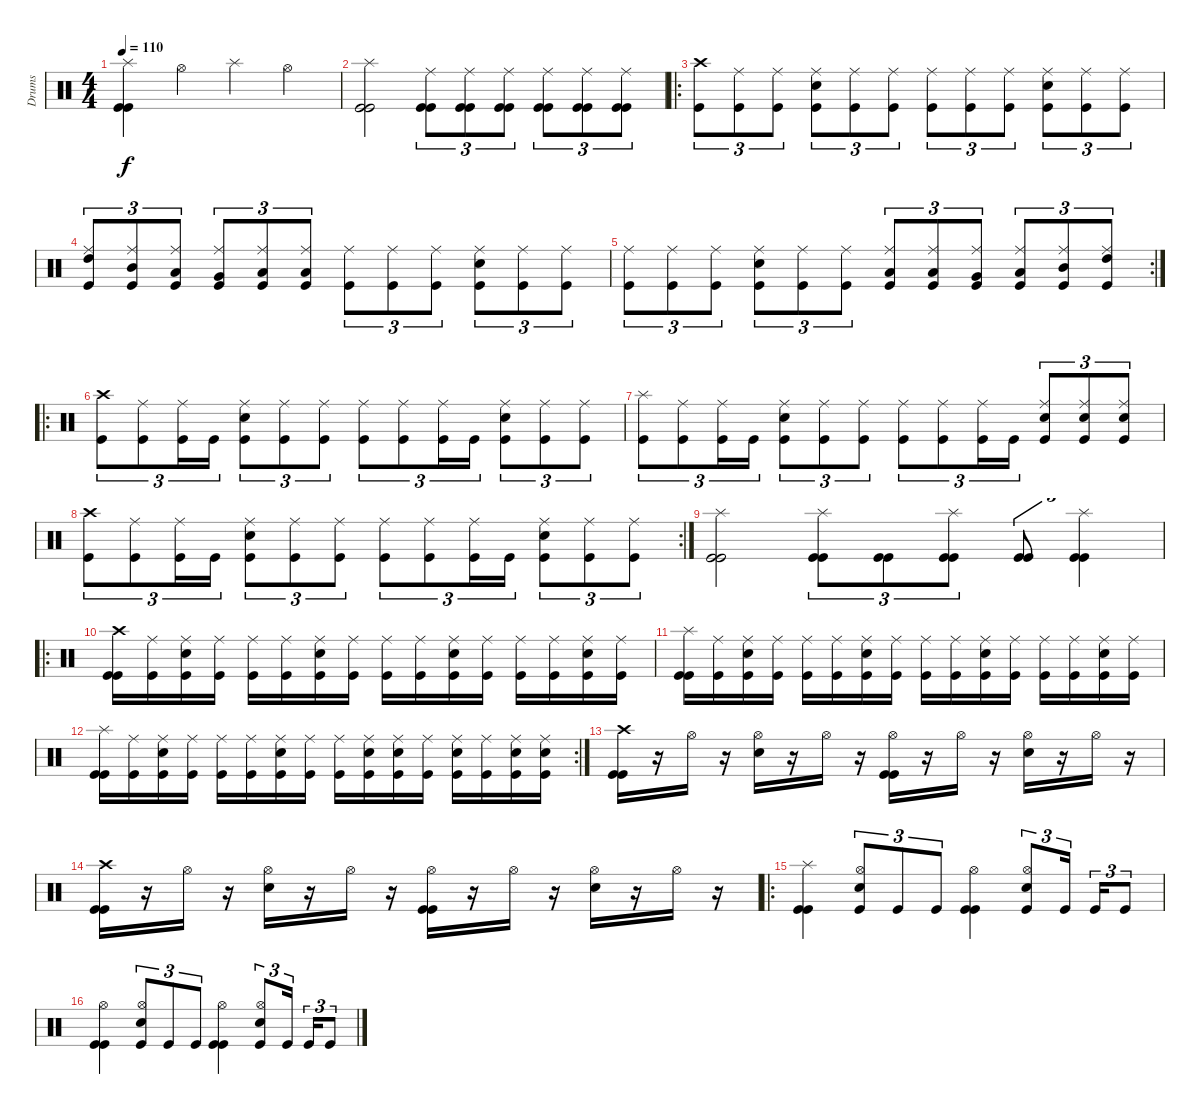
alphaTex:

\track ("Drums" "Drums") {instrument percussion}
\staff {score}
\articulation defaults
\ts (4 4)
\tempo 110
\clef neutral
\ks c
("Splash (hit)" "Kick (hit)" "Kick (hit)").4{dy f} "Hi-Hat (open)".4 "Splash (hit)".4 "Hi-Hat (open)".4 |
("Splash (hit)" "Kick (hit)" "Kick (hit)").2 ("Ride (middle)" "Kick (hit)" "Kick (hit)").8{tu (3 2)} ("Ride (middle)" "Kick (hit)" "Kick (hit)").8{tu (3 2)} ("Ride (middle)" "Kick (hit)" "Kick (hit)").8{tu (3 2)} ("Ride (middle)" "Kick (hit)" "Kick (hit)").8{tu (3 2)} ("Ride (middle)" "Kick (hit)" "Kick (hit)").8{tu (3 2)} ("Ride (middle)" "Kick (hit)" "Kick (hit)").8{tu (3 2)} |
\ro
("Crash high (hit)" "Kick (hit)").8{tu (3 2)} ("Ride (middle)" "Kick (hit)").8{tu (3 2)} ("Ride (middle)" "Kick (hit)").8{tu (3 2)} ("Ride (middle)" "Snare (hit) 2" "Kick (hit)").8{tu (3 2)} ("Ride (middle)" "Kick (hit)").8{tu (3 2)} ("Ride (middle)" "Kick (hit)").8{tu (3 2)} ("Ride (middle)" "Kick (hit)").8{tu (3 2)} ("Ride (middle)" "Kick (hit)").8{tu (3 2)} ("Ride (middle)" "Kick (hit)").8{tu (3 2)} ("Ride (middle)" "Snare (hit) 2" "Kick (hit)").8{tu (3 2)} ("Ride (middle)" "Kick (hit)").8{tu (3 2)} ("Ride (middle)" "Kick (hit)").8{tu (3 2)} |
("Ride (middle)" "High Tom (hit)" "Kick (hit)").8{tu (3 2)} ("Ride (middle)" "Mid Tom (hit)" "Kick (hit)").8{tu (3 2)} ("Ride (middle)" "Low Floor Tom (hit)" "Kick (hit)").8{tu (3 2)} ("Ride (middle)" "Very Low Tom (hit)" "Kick (hit)").8{tu (3 2)} ("Ride (middle)" "Low Tom (hit)" "Kick (hit)").8{tu (3 2)} ("Ride (middle)" "Low Tom (hit)" "Kick (hit)").8{tu (3 2)} ("Ride (middle)" "Kick (hit)").8{tu (3 2)} ("Ride (middle)" "Kick (hit)").8{tu (3 2)} ("Ride (middle)" "Kick (hit)").8{tu (3 2)} ("Ride (middle)" "Snare (hit) 2" "Kick (hit)").8{tu (3 2)} ("Ride (middle)" "Kick (hit)").8{tu (3 2)} ("Ride (middle)" "Kick (hit)").8{tu (3 2)} |
\rc 2
("Ride (middle)" "Kick (hit)").8{tu (3 2)} ("Ride (middle)" "Kick (hit)").8{tu (3 2)} ("Ride (middle)" "Kick (hit)").8{tu (3 2)} ("Ride (middle)" "Snare (hit) 2" "Kick (hit)").8{tu (3 2)} ("Ride (middle)" "Kick (hit)").8{tu (3 2)} ("Ride (middle)" "Kick (hit)").8{tu (3 2)} ("Ride (middle)" "Low Tom (hit)" "Kick (hit)").8{tu (3 2)} ("Ride (middle)" "Low Tom (hit)" "Kick (hit)").8{tu (3 2)} ("Ride (middle)" "Very Low Tom (hit)" "Kick (hit)").8{tu (3 2)} ("Ride (middle)" "Low Floor Tom (hit)" "Kick (hit)").8{tu (3 2)} ("Ride (middle)" "Mid Tom (hit)" "Kick (hit)").8{tu (3 2)} ("Ride (middle)" "High Tom (hit)" "Kick (hit)").8{tu (3 2)} |
\ro
("Crash high (hit)" "Kick (hit)").8{tu (3 2)} ("Ride (middle)" "Kick (hit)").8{tu (3 2)} ("Ride (middle)" "Kick (hit)").16{tu (3 2)} "Kick (hit)".16{tu (3 2)} ("Ride (middle)" "Snare (hit) 2" "Kick (hit)").8{tu (3 2)} ("Ride (middle)" "Kick (hit)").8{tu (3 2)} ("Ride (middle)" "Kick (hit)").8{tu (3 2)} ("Ride (middle)" "Kick (hit)").8{tu (3 2)} ("Ride (middle)" "Kick (hit)").8{tu (3 2)} ("Ride (middle)" "Kick (hit)").16{tu (3 2)} "Kick (hit)".16{tu (3 2)} ("Ride (middle)" "Snare (hit) 2" "Kick (hit)").8{tu (3 2)} ("Ride (middle)" "Kick (hit)").8{tu (3 2)} ("Ride (middle)" "Kick (hit)").8{tu (3 2)} |
("Splash (hit)" "Kick (hit)").8{tu (3 2)} ("Ride (middle)" "Kick (hit)").8{tu (3 2)} ("Ride (middle)" "Kick (hit)").16{tu (3 2)} "Kick (hit)".16{tu (3 2)} ("Ride (middle)" "Snare (hit) 2" "Kick (hit)").8{tu (3 2)} ("Ride (middle)" "Kick (hit)").8{tu (3 2)} ("Ride (middle)" "Kick (hit)").8{tu (3 2)} ("Ride (middle)" "Kick (hit)").8{tu (3 2)} ("Ride (middle)" "Kick (hit)").8{tu (3 2)} ("Ride (middle)" "Kick (hit)").16{tu (3 2)} "Kick (hit)".16{tu (3 2)} ("Ride (middle)" "Snare (hit) 2" "Kick (hit)").8{tu (3 2)} ("Ride (middle)" "Snare (hit) 2" "Kick (hit)").8{tu (3 2)} ("Ride (middle)" "Snare (hit) 2" "Kick (hit)").8{tu (3 2)} |
\rc 2
("Crash high (hit)" "Kick (hit)").8{tu (3 2)} ("Ride (middle)" "Kick (hit)").8{tu (3 2)} ("Ride (middle)" "Kick (hit)").16{tu (3 2)} "Kick (hit)".16{tu (3 2)} ("Ride (middle)" "Snare (hit) 2" "Kick (hit)").8{tu (3 2)} ("Ride (middle)" "Kick (hit)").8{tu (3 2)} ("Ride (middle)" "Kick (hit)").8{tu (3 2)} ("Ride (middle)" "Kick (hit)").8{tu (3 2)} ("Ride (middle)" "Kick (hit)").8{tu (3 2)} ("Ride (middle)" "Kick (hit)").16{tu (3 2)} "Kick (hit)".16{tu (3 2)} ("Ride (middle)" "Snare (hit) 2" "Kick (hit)").8{tu (3 2)} ("Ride (middle)" "Kick (hit)").8{tu (3 2)} ("Ride (middle)" "Kick (hit)").8{tu (3 2)} |
("Splash (hit)" "Kick (hit)" "Kick (hit)").2 ("Splash (hit)" "Kick (hit)" "Kick (hit)").8{tu (3 2)} ("Kick (hit)" "Kick (hit)").8{tu (3 2)} ("Splash (hit)" "Kick (hit)" "Kick (hit)").8{tu (3 2)} ("Kick (hit)" "Kick (hit)").8{tu (3 2)} ("Splash (hit)" "Kick (hit)" "Kick (hit)").4{tu (3 2)} |
\ro
("Crash high (hit)" "Kick (hit)" "Kick (hit)").16 ("Ride (middle)" "Kick (hit)").16 ("Ride (middle)" "Snare (hit) 2" "Kick (hit)").16 ("Ride (middle)" "Kick (hit)").16 ("Ride (middle)" "Kick (hit)").16 ("Ride (middle)" "Kick (hit)").16 ("Ride (middle)" "Snare (hit) 2" "Kick (hit)").16 ("Ride (middle)" "Kick (hit)").16 ("Ride (middle)" "Kick (hit)").16 ("Ride (middle)" "Kick (hit)").16 ("Ride (middle)" "Snare (hit) 2" "Kick (hit)").16 ("Ride (middle)" "Kick (hit)").16 ("Ride (middle)" "Kick (hit)").16 ("Ride (middle)" "Kick (hit)").16 ("Ride (middle)" "Snare (hit) 2" "Kick (hit)").16 ("Ride (middle)" "Kick (hit)").16 |
("Splash (hit)" "Kick (hit)" "Kick (hit)").16 ("Ride (middle)" "Kick (hit)").16 ("Ride (middle)" "Snare (hit) 2" "Kick (hit)").16 ("Ride (middle)" "Kick (hit)").16 ("Ride (middle)" "Kick (hit)").16 ("Ride (middle)" "Kick (hit)").16 ("Ride (middle)" "Snare (hit) 2" "Kick (hit)").16 ("Ride (middle)" "Kick (hit)").16 ("Ride (middle)" "Kick (hit)").16 ("Ride (middle)" "Kick (hit)").16 ("Ride (middle)" "Snare (hit) 2" "Kick (hit)").16 ("Ride (middle)" "Kick (hit)").16 ("Ride (middle)" "Kick (hit)").16 ("Ride (middle)" "Kick (hit)").16 ("Ride (middle)" "Snare (hit) 2" "Kick (hit)").16 ("Ride (middle)" "Kick (hit)").16 |
\rc 2
("Splash (hit)" "Kick (hit)" "Kick (hit)").16 ("Ride (middle)" "Kick (hit)").16 ("Ride (middle)" "Snare (hit) 2" "Kick (hit)").16 ("Ride (middle)" "Kick (hit)").16 ("Ride (middle)" "Kick (hit)").16 ("Ride (middle)" "Kick (hit)").16 ("Ride (middle)" "Snare (hit) 2" "Kick (hit)").16 ("Ride (middle)" "Kick (hit)").16 ("Ride (middle)" "Kick (hit)").16 ("Ride (middle)" "Snare (hit) 2" "Kick (hit)").16 ("Ride (middle)" "Snare (hit) 2" "Kick (hit)").16 ("Ride (middle)" "Kick (hit)").16 ("Ride (middle)" "Snare (hit) 2" "Kick (hit)").16 ("Ride (middle)" "Kick (hit)").16 ("Ride (middle)" "Snare (hit) 2" "Kick (hit)").16 ("Ride (middle)" "Snare (hit) 2" "Kick (hit)").16 |
("Crash high (hit)" "Kick (hit)" "Kick (hit)").16 r.16 "Hi-Hat (open)".16 r.16 ("Hi-Hat (open)" "Snare (hit) 2").16 r.16 "Hi-Hat (open)".16 r.16 ("Hi-Hat (open)" "Kick (hit)" "Kick (hit)").16 r.16 "Hi-Hat (open)".16 r.16 ("Hi-Hat (open)" "Snare (hit) 2").16 r.16 "Hi-Hat (open)".16 r.16 |
("Crash high (hit)" "Kick (hit)" "Kick (hit)").16 r.16 "Hi-Hat (open)".16 r.16 ("Hi-Hat (open)" "Snare (hit) 2").16 r.16 "Hi-Hat (open)".16 r.16 ("Hi-Hat (open)" "Kick (hit)" "Kick (hit)").16 r.16 "Hi-Hat (open)".16 r.16 ("Hi-Hat (open)" "Snare (hit) 2").16 r.16 "Hi-Hat (open)".16 r.16 |
\ro
("Splash (hit)" "Kick (hit)" "Kick (hit)").4 ("Hi-Hat (open)" "Snare (hit) 2" "Kick (hit)").8{tu (3 2)} "Kick (hit)".8{tu (3 2)} "Kick (hit)".8{tu (3 2)} ("Hi-Hat (open)" "Kick (hit)" "Kick (hit)").4 ("Hi-Hat (open)" "Snare (hit) 2" "Kick (hit)").8{tu (3 2)} "Kick (hit)".16{tu (3 2)} "Kick (hit)".16{tu (3 2)} "Kick (hit)".8{tu (3 2)} |
("Hi-Hat (open)" "Kick (hit)" "Kick (hit)").4 ("Hi-Hat (open)" "Snare (hit) 2" "Kick (hit)").8{tu (3 2)} "Kick (hit)".8{tu (3 2)} "Kick (hit)".8{tu (3 2)} ("Hi-Hat (open)" "Kick (hit)" "Kick (hit)").4 ("Hi-Hat (open)" "Snare (hit) 2" "Kick (hit)").8{tu (3 2)} "Kick (hit)".16{tu (3 2)} "Kick (hit)".16{tu (3 2)} "Kick (hit)".8{tu (3 2)}
